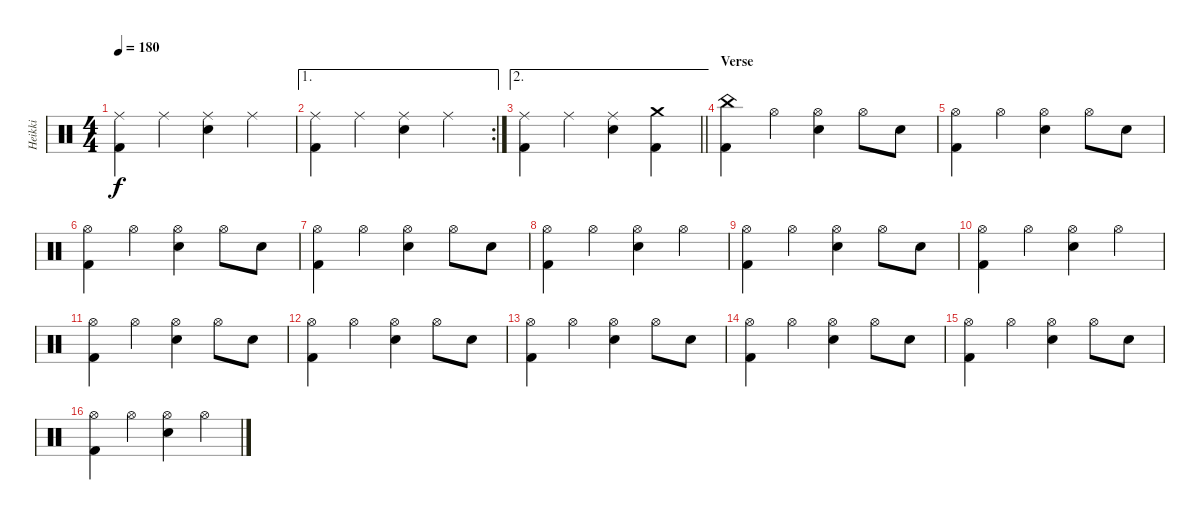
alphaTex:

\track ("Heikki" "Heikki") {instrument percussion}
\staff {score}
\articulation defaults
\ts (4 4)
\tempo 180
\clef neutral
\ks c
("Ride (middle)" "Kick (hit) 2").4{dy f} "Ride (middle)".4 ("Ride (middle)" "Electric Snare (hit)").4 "Ride (middle)".4 |
\ae 1
\rc 2
("Ride (middle)" "Kick (hit) 2").4 "Ride (middle)".4 ("Ride (middle)" "Electric Snare (hit)").4 "Ride (middle)".4 |
\ae 2
\barLineRight lightlight
("Ride (middle)" "Kick (hit) 2").4 "Ride (middle)".4 ("Ride (middle)" "Electric Snare (hit)").4 ("Crash medium (hit)" "Kick (hit) 2").4 |
\section ("" "Verse")
("China (hit)" "Kick (hit) 2").4 "Hi-Hat (open)".4 ("Hi-Hat (open)" "Electric Snare (hit)").4 "Hi-Hat (open)".8 "Electric Snare (hit)".8 |
("Hi-Hat (open)" "Kick (hit) 2").4 "Hi-Hat (open)".4 ("Hi-Hat (open)" "Electric Snare (hit)").4 "Hi-Hat (open)".8 "Electric Snare (hit)".8 |
("Hi-Hat (open)" "Kick (hit) 2").4 "Hi-Hat (open)".4 ("Hi-Hat (open)" "Electric Snare (hit)").4 "Hi-Hat (open)".8 "Electric Snare (hit)".8 |
("Hi-Hat (open)" "Kick (hit) 2").4 "Hi-Hat (open)".4 ("Hi-Hat (open)" "Electric Snare (hit)").4 "Hi-Hat (open)".8 "Electric Snare (hit)".8 |
("Hi-Hat (open)" "Kick (hit) 2").4 "Hi-Hat (open)".4 ("Hi-Hat (open)" "Electric Snare (hit)").4 "Hi-Hat (open)".4 |
("Hi-Hat (open)" "Kick (hit) 2").4 "Hi-Hat (open)".4 ("Hi-Hat (open)" "Electric Snare (hit)").4 "Hi-Hat (open)".8 "Electric Snare (hit)".8 |
("Hi-Hat (open)" "Kick (hit) 2").4 "Hi-Hat (open)".4 ("Hi-Hat (open)" "Electric Snare (hit)").4 "Hi-Hat (open)".4 |
("Hi-Hat (open)" "Kick (hit) 2").4 "Hi-Hat (open)".4 ("Hi-Hat (open)" "Electric Snare (hit)").4 "Hi-Hat (open)".8 "Electric Snare (hit)".8 |
("Hi-Hat (open)" "Kick (hit) 2").4 "Hi-Hat (open)".4 ("Hi-Hat (open)" "Electric Snare (hit)").4 "Hi-Hat (open)".8 "Electric Snare (hit)".8 |
("Hi-Hat (open)" "Kick (hit) 2").4 "Hi-Hat (open)".4 ("Hi-Hat (open)" "Electric Snare (hit)").4 "Hi-Hat (open)".8 "Electric Snare (hit)".8 |
("Hi-Hat (open)" "Kick (hit) 2").4 "Hi-Hat (open)".4 ("Hi-Hat (open)" "Electric Snare (hit)").4 "Hi-Hat (open)".8 "Electric Snare (hit)".8 |
("Hi-Hat (open)" "Kick (hit) 2").4 "Hi-Hat (open)".4 ("Hi-Hat (open)" "Electric Snare (hit)").4 "Hi-Hat (open)".8 "Electric Snare (hit)".8 |
("Hi-Hat (open)" "Kick (hit) 2").4 "Hi-Hat (open)".4 ("Hi-Hat (open)" "Electric Snare (hit)").4 "Hi-Hat (open)".4
